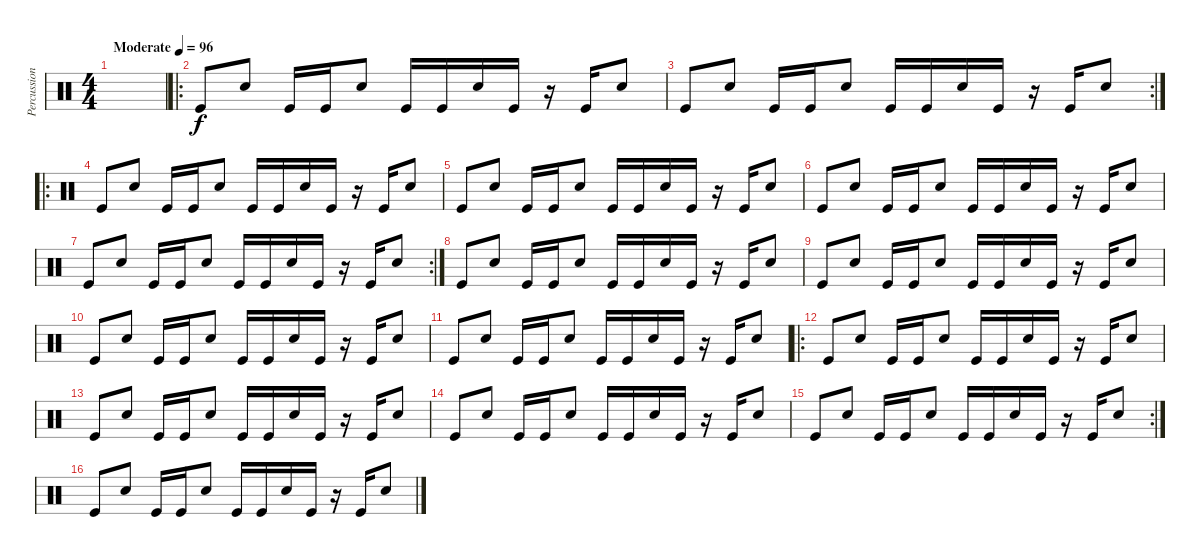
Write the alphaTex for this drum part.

\track ("Percussion" "Percussion") {instrument percussion}
\staff {score}
\articulation defaults
\ts (4 4)
\tempo (96 "Moderate")
\clef neutral
\ks c
|
\ro "Kick (hit)".8 "Snare (hit) 2".8 "Kick (hit)".16 "Kick (hit)".16 "Snare (hit) 2".8 "Kick (hit)".16 "Kick (hit)".16 "Snare (hit) 2".16 "Kick (hit)".16
r.16 "Kick (hit)".16 "Snare (hit) 2".8 |
\rc 2 "Kick (hit)".8 "Snare (hit) 2".8 "Kick (hit)".16 "Kick (hit)".16 "Snare (hit) 2".8 "Kick (hit)".16 "Kick (hit)".16 "Snare (hit) 2".16 "Kick (hit)".16
r.16 "Kick (hit)".16 "Snare (hit) 2".8 |
\ro "Kick (hit)".8 "Snare (hit) 2".8 "Kick (hit)".16 "Kick (hit)".16 "Snare (hit) 2".8 "Kick (hit)".16 "Kick (hit)".16 "Snare (hit) 2".16 "Kick (hit)".16
r.16 "Kick (hit)".16 "Snare (hit) 2".8 |
"Kick (hit)".8 "Snare (hit) 2".8 "Kick (hit)".16 "Kick (hit)".16 "Snare (hit) 2".8 "Kick (hit)".16 "Kick (hit)".16 "Snare (hit) 2".16 "Kick (hit)".16 r.16 "Kick (hit)".16 "Snare (hit) 2".8 |
"Kick (hit)".8 "Snare (hit) 2".8 "Kick (hit)".16 "Kick (hit)".16 "Snare (hit) 2".8 "Kick (hit)".16 "Kick (hit)".16 "Snare (hit) 2".16 "Kick (hit)".16 r.16 "Kick (hit)".16 "Snare (hit) 2".8 |
\rc 2 "Kick (hit)".8 "Snare (hit) 2".8 "Kick (hit)".16 "Kick (hit)".16 "Snare (hit) 2".8 "Kick (hit)".16 "Kick (hit)".16 "Snare (hit) 2".16 "Kick (hit)".16
r.16 "Kick (hit)".16 "Snare (hit) 2".8 |
"Kick (hit)".8 "Snare (hit) 2".8 "Kick (hit)".16 "Kick (hit)".16 "Snare (hit) 2".8 "Kick (hit)".16 "Kick (hit)".16 "Snare (hit) 2".16 "Kick (hit)".16 r.16 "Kick (hit)".16 "Snare (hit) 2".8 |
"Kick (hit)".8 "Snare (hit) 2".8 "Kick (hit)".16 "Kick (hit)".16 "Snare (hit) 2".8 "Kick (hit)".16 "Kick (hit)".16 "Snare (hit) 2".16 "Kick (hit)".16 r.16 "Kick (hit)".16 "Snare (hit) 2".8 |
"Kick (hit)".8 "Snare (hit) 2".8 "Kick (hit)".16 "Kick (hit)".16 "Snare (hit) 2".8 "Kick (hit)".16 "Kick (hit)".16 "Snare (hit) 2".16 "Kick (hit)".16 r.16 "Kick (hit)".16 "Snare (hit) 2".8 |
"Kick (hit)".8 "Snare (hit) 2".8 "Kick (hit)".16 "Kick (hit)".16 "Snare (hit) 2".8 "Kick (hit)".16 "Kick (hit)".16 "Snare (hit) 2".16 "Kick (hit)".16 r.16 "Kick (hit)".16 "Snare (hit) 2".8 |
\ro "Kick (hit)".8 "Snare (hit) 2".8 "Kick (hit)".16 "Kick (hit)".16 "Snare (hit) 2".8 "Kick (hit)".16 "Kick (hit)".16 "Snare (hit) 2".16 "Kick (hit)".16
r.16 "Kick (hit)".16 "Snare (hit) 2".8 |
"Kick (hit)".8 "Snare (hit) 2".8 "Kick (hit)".16 "Kick (hit)".16 "Snare (hit) 2".8 "Kick (hit)".16 "Kick (hit)".16 "Snare (hit) 2".16 "Kick (hit)".16 r.16 "Kick (hit)".16 "Snare (hit) 2".8 |
"Kick (hit)".8 "Snare (hit) 2".8 "Kick (hit)".16 "Kick (hit)".16 "Snare (hit) 2".8 "Kick (hit)".16 "Kick (hit)".16 "Snare (hit) 2".16 "Kick (hit)".16 r.16 "Kick (hit)".16 "Snare (hit) 2".8 |
\rc 2 "Kick (hit)".8 "Snare (hit) 2".8 "Kick (hit)".16 "Kick (hit)".16 "Snare (hit) 2".8 "Kick (hit)".16 "Kick (hit)".16 "Snare (hit) 2".16 "Kick (hit)".16
r.16 "Kick (hit)".16 "Snare (hit) 2".8 |
"Kick (hit)".8 "Snare (hit) 2".8 "Kick (hit)".16 "Kick (hit)".16 "Snare (hit) 2".8 "Kick (hit)".16 "Kick (hit)".16 "Snare (hit) 2".16 "Kick (hit)".16 r.16 "Kick (hit)".16 "Snare (hit) 2".8
